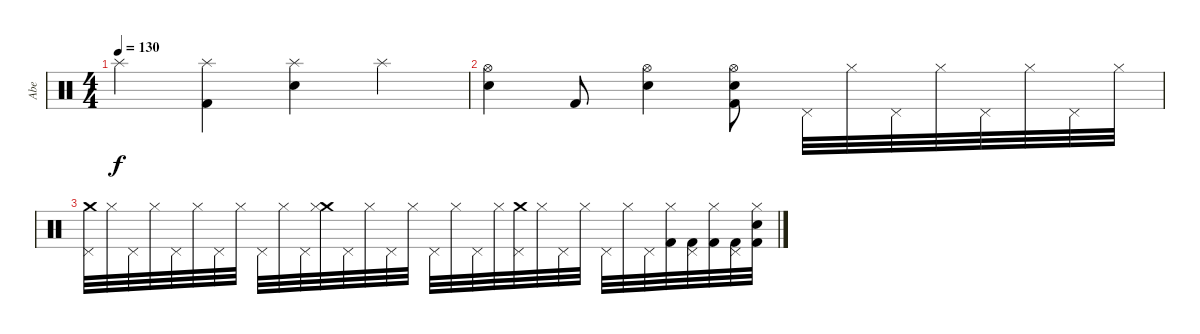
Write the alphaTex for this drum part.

\track ("Abe" "Abe") {instrument percussion}
\staff {score}
\articulation defaults
\ts (4 4)
\tempo 130
\clef neutral
\ks c "Splash (hit)".4{dy f}
("Splash (hit)" "Kick (hit) 2").4 ("Splash (hit)" "Snare (hit) 2").4 "Splash (hit)".4 |
("Hi-Hat (open)" "Snare (hit) 2").4 "Kick (hit) 2".8 ("Hi-Hat (open)" "Snare (hit) 2").4 ("Hi-Hat (open)" "Kick (hit) 2" "Snare (hit) 2").8 "Pedal Hi-Hat (hit)".32 "Hi-Hat (closed)".32 "Pedal Hi-Hat (hit)".32 "Hi-Hat (closed)".32 "Pedal Hi-Hat (hit)".32 "Hi-Hat (closed)".32 "Pedal Hi-Hat (hit)".32 "Hi-Hat (closed)".32 |
("Crash medium (hit)" "Pedal Hi-Hat (hit)").32 "Hi-Hat (closed)".32 "Pedal Hi-Hat (hit)".32 "Hi-Hat (closed)".32 "Pedal Hi-Hat (hit)".32 "Hi-Hat (closed)".32 "Pedal Hi-Hat (hit)".32 "Hi-Hat (closed)".32 "Pedal Hi-Hat (hit)".32 "Hi-Hat (closed)".32 "Pedal Hi-Hat (hit)".32 ("Crash medium (hit)" "Hi-Hat (closed)").32 "Pedal Hi-Hat (hit)".32 "Hi-Hat (closed)".32 "Pedal Hi-Hat (hit)".32 "Hi-Hat (closed)".32 "Pedal Hi-Hat (hit)".32 "Hi-Hat (closed)".32 "Pedal Hi-Hat (hit)".32 "Hi-Hat (closed)".32 ("Crash medium (hit)" "Pedal Hi-Hat (hit)").32 "Hi-Hat (closed)".32 "Pedal Hi-Hat (hit)".32 "Hi-Hat (closed)".32 "Pedal Hi-Hat (hit)".32 "Hi-Hat (closed)".32 "Pedal Hi-Hat (hit)".32 ("Hi-Hat (closed)" "Kick (hit) 2").32 ("Pedal Hi-Hat (hit)" "Kick (hit) 2").32 ("Hi-Hat (closed)" "Kick (hit) 2").32 ("Pedal Hi-Hat (hit)" "Kick (hit) 2").32 ("Hi-Hat (closed)" "Kick (hit) 2" "Snare (hit) 2").32
